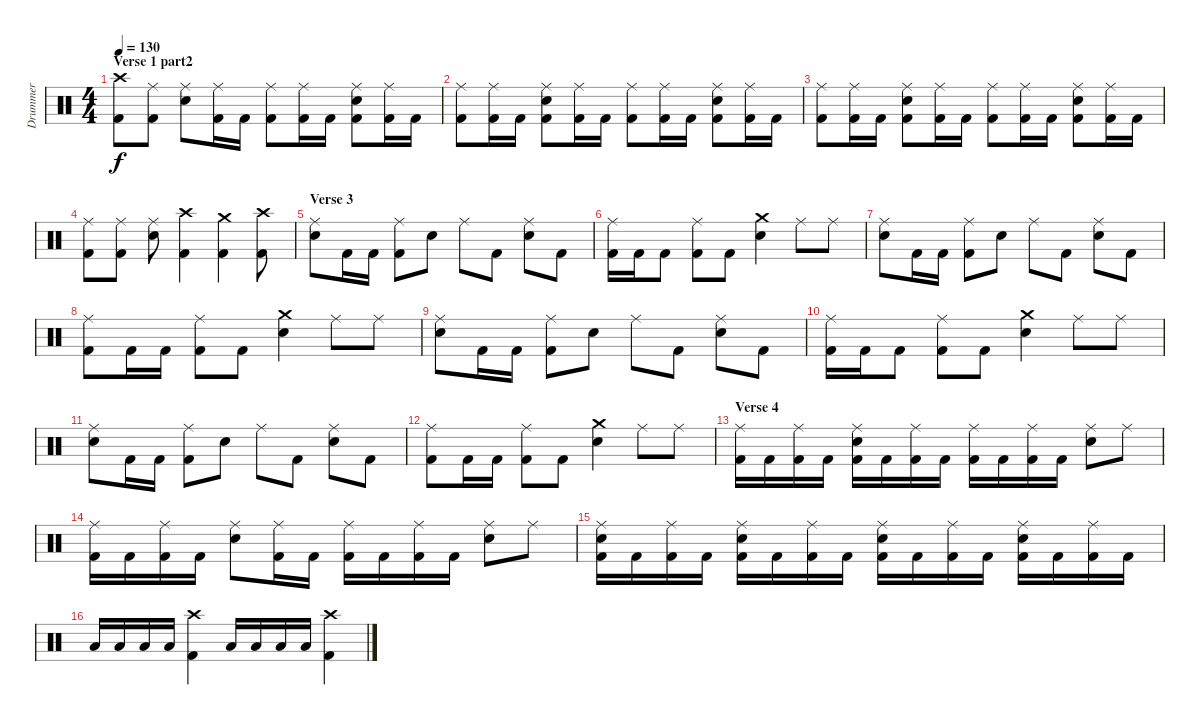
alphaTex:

\track ("Drummer" "Drummer") {instrument percussion}
\staff {score}
\articulation defaults
\ts (4 4)
\section ("" "Verse 1 part2")
\tempo 130
\clef neutral
\ks c
("Crash high (hit)" "Kick (hit) 2").8{dy f} ("Ride (middle)" "Kick (hit) 2").8 ("Ride (middle)" "Snare (hit) 2").8 ("Ride (middle)" "Kick (hit) 2").16 "Kick (hit) 2".16 ("Ride (middle)" "Kick (hit) 2").8 ("Ride (middle)" "Kick (hit) 2").16 "Kick (hit) 2".16 ("Ride (middle)" "Snare (hit) 2" "Kick (hit) 2").8 ("Ride (middle)" "Kick (hit) 2").16 "Kick (hit) 2".16 |
("Ride (middle)" "Kick (hit) 2").8 ("Ride (middle)" "Kick (hit) 2").16 "Kick (hit) 2".16 ("Ride (middle)" "Snare (hit) 2" "Kick (hit) 2").8 ("Ride (middle)" "Kick (hit) 2").16 "Kick (hit) 2".16 ("Ride (middle)" "Kick (hit) 2").8 ("Ride (middle)" "Kick (hit) 2").16 "Kick (hit) 2".16 ("Ride (middle)" "Snare (hit) 2" "Kick (hit) 2").8 ("Ride (middle)" "Kick (hit) 2").16 "Kick (hit) 2".16 |
("Ride (middle)" "Kick (hit) 2").8 ("Ride (middle)" "Kick (hit) 2").16 "Kick (hit) 2".16 ("Ride (middle)" "Snare (hit) 2" "Kick (hit) 2").8 ("Ride (middle)" "Kick (hit) 2").16 "Kick (hit) 2".16 ("Ride (middle)" "Kick (hit) 2").8 ("Ride (middle)" "Kick (hit) 2").16 "Kick (hit) 2".16 ("Ride (middle)" "Snare (hit) 2" "Kick (hit) 2").8 ("Ride (middle)" "Kick (hit) 2").16 "Kick (hit) 2".16 |
("Ride (middle)" "Kick (hit) 2").8 ("Ride (middle)" "Kick (hit) 2").8 ("Ride (middle)" "Snare (hit) 2").8 ("Crash high (hit)" "Kick (hit) 2").4 ("Crash medium (hit)" "Kick (hit) 2").4 ("Crash high (hit)" "Kick (hit) 2").8 |
\section ("" "Verse 3")
("Ride (middle)" "Snare (hit) 2").8 "Kick (hit) 2".16 "Kick (hit) 2".16 ("Ride (middle)" "Kick (hit) 2").8 "Snare (hit) 2".8 "Ride (middle)".8 "Kick (hit) 2".8 ("Ride (middle)" "Snare (hit) 2").8 "Kick (hit) 2".8 |
("Ride (middle)" "Kick (hit) 2").16 "Kick (hit) 2".16 "Kick (hit) 2".8 ("Ride (middle)" "Kick (hit) 2").8 "Kick (hit) 2".8 ("Crash medium (hit)" "Snare (hit) 2").4 "Ride (middle)".8 "Ride (middle)".8 |
("Ride (middle)" "Snare (hit) 2").8 "Kick (hit) 2".16 "Kick (hit) 2".16 ("Ride (middle)" "Kick (hit) 2").8 "Snare (hit) 2".8 "Ride (middle)".8 "Kick (hit) 2".8 ("Ride (middle)" "Snare (hit) 2").8 "Kick (hit) 2".8 |
("Ride (middle)" "Kick (hit) 2").8 "Kick (hit) 2".16 "Kick (hit) 2".16 ("Ride (middle)" "Kick (hit) 2").8 "Kick (hit) 2".8 ("Crash medium (hit)" "Snare (hit) 2").4 "Ride (middle)".8 "Ride (middle)".8 |
("Ride (middle)" "Snare (hit) 2").8 "Kick (hit) 2".16 "Kick (hit) 2".16 ("Ride (middle)" "Kick (hit) 2").8 "Snare (hit) 2".8 "Ride (middle)".8 "Kick (hit) 2".8 ("Ride (middle)" "Snare (hit) 2").8 "Kick (hit) 2".8 |
("Ride (middle)" "Kick (hit) 2").16 "Kick (hit) 2".16 "Kick (hit) 2".8 ("Ride (middle)" "Kick (hit) 2").8 "Kick (hit) 2".8 ("Crash medium (hit)" "Snare (hit) 2").4 "Ride (middle)".8 "Ride (middle)".8 |
("Ride (middle)" "Snare (hit) 2").8 "Kick (hit) 2".16 "Kick (hit) 2".16 ("Ride (middle)" "Kick (hit) 2").8 "Snare (hit) 2".8 "Ride (middle)".8 "Kick (hit) 2".8 ("Ride (middle)" "Snare (hit) 2").8 "Kick (hit) 2".8 |
("Ride (middle)" "Kick (hit) 2").8 "Kick (hit) 2".16 "Kick (hit) 2".16 ("Ride (middle)" "Kick (hit) 2").8 "Kick (hit) 2".8 ("Crash medium (hit)" "Snare (hit) 2").4 "Ride (middle)".8 "Ride (middle)".8 |
\section ("" "Verse 4")
("Ride (middle)" "Kick (hit) 2").16 "Kick (hit) 2".16 ("Ride (middle)" "Kick (hit) 2").16 "Kick (hit) 2".16 ("Ride (middle)" "Snare (hit) 2" "Kick (hit) 2").16 "Kick (hit) 2".16 ("Ride (middle)" "Kick (hit) 2").16 "Kick (hit) 2".16 ("Ride (middle)" "Kick (hit) 2").16 "Kick (hit) 2".16 ("Ride (middle)" "Kick (hit) 2").16 "Kick (hit) 2".16 ("Ride (middle)" "Snare (hit) 2").8 "Ride (middle)".8 |
("Ride (middle)" "Kick (hit) 2").16 "Kick (hit) 2".16 ("Ride (middle)" "Kick (hit) 2").16 "Kick (hit) 2".16 ("Ride (middle)" "Snare (hit) 2").8 ("Ride (middle)" "Kick (hit) 2").16 "Kick (hit) 2".16 ("Ride (middle)" "Kick (hit) 2").16 "Kick (hit) 2".16 ("Ride (middle)" "Kick (hit) 2").16 "Kick (hit) 2".16 ("Ride (middle)" "Snare (hit) 2").8 "Ride (middle)".8 |
("Ride (middle)" "Snare (hit) 2" "Kick (hit) 2").16 "Kick (hit) 2".16 ("Ride (middle)" "Kick (hit) 2").16 "Kick (hit) 2".16 ("Ride (middle)" "Snare (hit) 2" "Kick (hit) 2").16 "Kick (hit) 2".16 ("Ride (middle)" "Kick (hit) 2").16 "Kick (hit) 2".16 ("Ride (middle)" "Snare (hit) 2" "Kick (hit) 2").16 "Kick (hit) 2".16 ("Ride (middle)" "Kick (hit) 2").16 "Kick (hit) 2".16 ("Ride (middle)" "Snare (hit) 2" "Kick (hit) 2").16 "Kick (hit) 2".16 ("Ride (middle)" "Kick (hit) 2").16 "Kick (hit) 2".16 |
"Low Tom (hit)".16 "Low Tom (hit)".16 "Low Tom (hit)".16 "Low Tom (hit)".16 ("Crash high (hit)" "Kick (hit) 2").4 "Low Tom (hit)".16 "Low Tom (hit)".16 "Low Tom (hit)".16 "Low Tom (hit)".16 ("Crash high (hit)" "Kick (hit) 2").4
